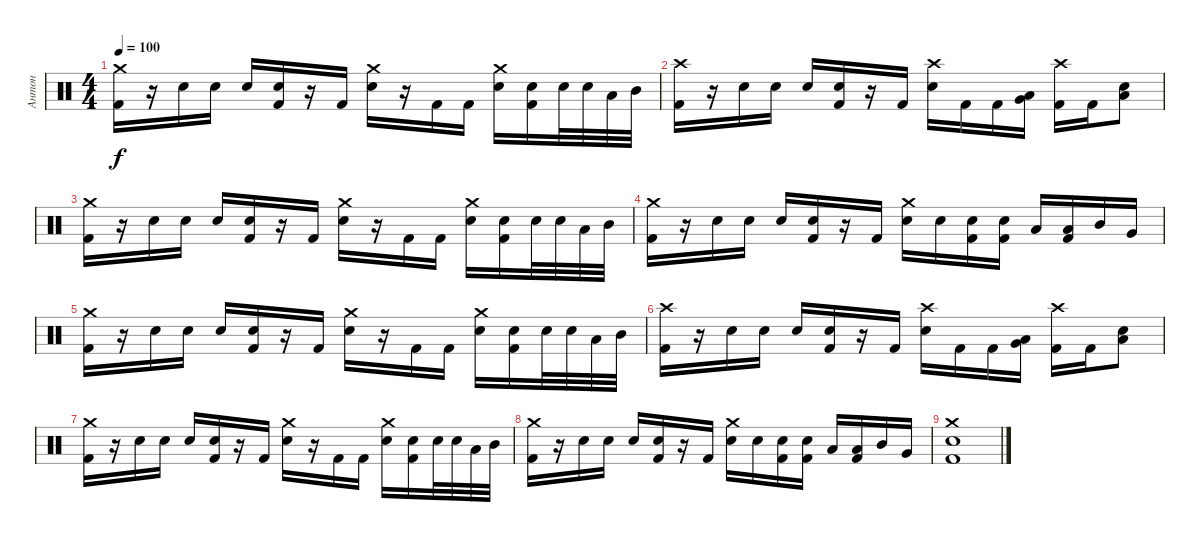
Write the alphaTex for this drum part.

\track ("Антон" "Антон") {instrument percussion}
\staff {score}
\articulation defaults
\ts (4 4)
\tempo 100
\clef neutral
\ks c
("Crash medium (hit)" "Kick (hit) 2").16{dy f} r.16 "Electric Snare (hit)".16 "Electric Snare (hit)".16 "Electric Snare (hit)".16 ("Electric Snare (hit)" "Kick (hit) 2").16 r.16 "Kick (hit) 2".16 ("Crash medium (hit)" "Electric Snare (hit)").16 r.16 "Kick (hit) 2".16 "Kick (hit) 2".16 ("Crash medium (hit)" "Electric Snare (hit)").16 ("Electric Snare (hit)" "Kick (hit) 2").16 "Electric Snare (hit)".32 "Electric Snare (hit)".32 "Low Tom (hit)".32 "Mid Tom (hit)".32 |
("Crash high (hit)" "Kick (hit) 2").16 r.16 "Electric Snare (hit)".16 "Electric Snare (hit)".16 "Electric Snare (hit)".16 ("Electric Snare (hit)" "Kick (hit) 2").16 r.16 "Kick (hit) 2".16 ("Crash high (hit)" "Electric Snare (hit)").16 "Kick (hit) 2".16 "Kick (hit) 2".16 ("Very Low Tom (hit)" "Low Tom (hit)").16 ("Crash high (hit)" "Kick (hit) 2").16 "Kick (hit) 2".16 ("Electric Snare (hit)" "Low Tom (hit)").8 |
("Crash medium (hit)" "Kick (hit) 2").16 r.16 "Electric Snare (hit)".16 "Electric Snare (hit)".16 "Electric Snare (hit)".16 ("Electric Snare (hit)" "Kick (hit) 2").16 r.16 "Kick (hit) 2".16 ("Crash medium (hit)" "Electric Snare (hit)").16 r.16 "Kick (hit) 2".16 "Kick (hit) 2".16 ("Crash medium (hit)" "Electric Snare (hit)").16 ("Electric Snare (hit)" "Kick (hit) 2").16 "Electric Snare (hit)".32 "Electric Snare (hit)".32 "Low Tom (hit)".32 "Mid Tom (hit)".32 |
("Crash medium (hit)" "Kick (hit) 2").16 r.16 "Electric Snare (hit)".16 "Electric Snare (hit)".16 "Electric Snare (hit)".16 ("Electric Snare (hit)" "Kick (hit) 2").16 r.16 "Kick (hit) 2".16 ("Crash medium (hit)" "Electric Snare (hit)").16 "Electric Snare (hit)".16 ("Electric Snare (hit)" "Kick (hit) 2").16 ("Electric Snare (hit)" "Kick (hit) 2").16 "Low Tom (hit)".16 ("Low Tom (hit)" "Kick (hit) 2").16 "Mid Tom (hit)".16 "Very Low Tom (hit)".16 |
("Crash medium (hit)" "Kick (hit) 2").16 r.16 "Electric Snare (hit)".16 "Electric Snare (hit)".16 "Electric Snare (hit)".16 ("Electric Snare (hit)" "Kick (hit) 2").16 r.16 "Kick (hit) 2".16 ("Crash medium (hit)" "Electric Snare (hit)").16 r.16 "Kick (hit) 2".16 "Kick (hit) 2".16 ("Crash medium (hit)" "Electric Snare (hit)").16 ("Electric Snare (hit)" "Kick (hit) 2").16 "Electric Snare (hit)".32 "Electric Snare (hit)".32 "Low Tom (hit)".32 "Mid Tom (hit)".32 |
("Crash high (hit)" "Kick (hit) 2").16 r.16 "Electric Snare (hit)".16 "Electric Snare (hit)".16 "Electric Snare (hit)".16 ("Electric Snare (hit)" "Kick (hit) 2").16 r.16 "Kick (hit) 2".16 ("Crash high (hit)" "Electric Snare (hit)").16 "Kick (hit) 2".16 "Kick (hit) 2".16 ("Very Low Tom (hit)" "Low Tom (hit)").16 ("Crash high (hit)" "Kick (hit) 2").16 "Kick (hit) 2".16 ("Electric Snare (hit)" "Low Tom (hit)").8 |
("Crash medium (hit)" "Kick (hit) 2").16 r.16 "Electric Snare (hit)".16 "Electric Snare (hit)".16 "Electric Snare (hit)".16 ("Electric Snare (hit)" "Kick (hit) 2").16 r.16 "Kick (hit) 2".16 ("Crash medium (hit)" "Electric Snare (hit)").16 r.16 "Kick (hit) 2".16 "Kick (hit) 2".16 ("Crash medium (hit)" "Electric Snare (hit)").16 ("Electric Snare (hit)" "Kick (hit) 2").16 "Electric Snare (hit)".32 "Electric Snare (hit)".32 "Low Tom (hit)".32 "Mid Tom (hit)".32 |
("Crash medium (hit)" "Kick (hit) 2").16 r.16 "Electric Snare (hit)".16 "Electric Snare (hit)".16 "Electric Snare (hit)".16 ("Electric Snare (hit)" "Kick (hit) 2").16 r.16 "Kick (hit) 2".16 ("Crash medium (hit)" "Electric Snare (hit)").16 "Electric Snare (hit)".16 ("Electric Snare (hit)" "Kick (hit) 2").16 ("Electric Snare (hit)" "Kick (hit) 2").16 "Low Tom (hit)".16 ("Low Tom (hit)" "Kick (hit) 2").16 "Mid Tom (hit)".16 "Very Low Tom (hit)".16 |
("Crash medium (hit)" "Electric Snare (hit)" "Kick (hit) 2").1
